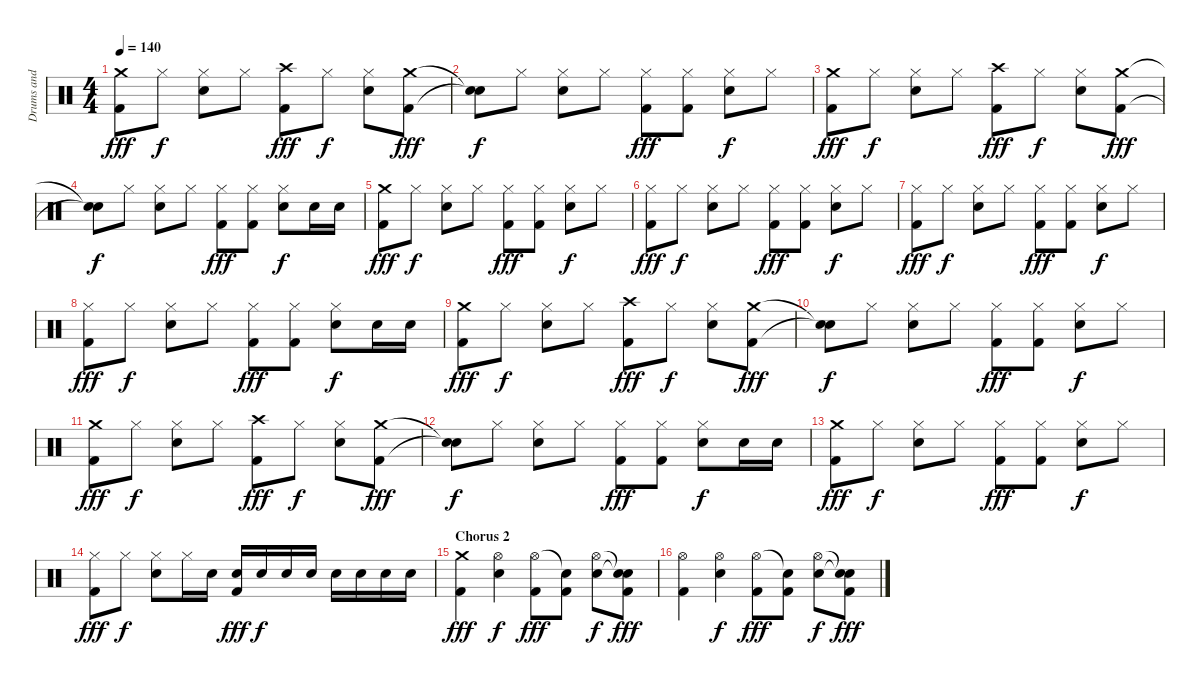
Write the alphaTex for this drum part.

\track ("Drums and Percussion" "Drums and ") {instrument percussion}
\staff {score}
\articulation defaults
\ts (4 4)
\tempo 140
\clef neutral
\ks c
("Crash medium (hit)" "Kick (hit) 2").8{dy fff} "Hi-Hat (closed)".8{dy f} ("Hi-Hat (closed)" "Snare (hit) 2").8 "Hi-Hat (closed)".8 ("Crash high (hit)" "Kick (hit) 2").8{dy fff} "Hi-Hat (closed)".8{dy f} ("Hi-Hat (closed)" "Snare (hit) 2").8 ("Crash medium (hit)" "Kick (hit) 2").8{dy fff} |
("Snare (hit)"{t} "Snare (hit)"{t}).8{dy f} "Hi-Hat (closed)".8 ("Hi-Hat (closed)" "Snare (hit) 2").8 "Hi-Hat (closed)".8 ("Hi-Hat (closed)" "Kick (hit) 2").8{dy fff} ("Hi-Hat (closed)" "Kick (hit) 2").8 ("Hi-Hat (closed)" "Snare (hit) 2").8{dy f} "Hi-Hat (closed)".8 |
("Crash medium (hit)" "Kick (hit) 2").8{dy fff} "Hi-Hat (closed)".8{dy f} ("Hi-Hat (closed)" "Snare (hit) 2").8 "Hi-Hat (closed)".8 ("Crash high (hit)" "Kick (hit) 2").8{dy fff} "Hi-Hat (closed)".8{dy f} ("Hi-Hat (closed)" "Snare (hit) 2").8 ("Crash medium (hit)" "Kick (hit) 2").8{dy fff} |
("Snare (hit)"{t} "Snare (hit)"{t}).8{dy f} "Hi-Hat (closed)".8 ("Hi-Hat (closed)" "Snare (hit) 2").8 "Hi-Hat (closed)".8 ("Hi-Hat (closed)" "Kick (hit) 2").8{dy fff} ("Hi-Hat (closed)" "Kick (hit) 2").8 ("Hi-Hat (closed)" "Snare (hit) 2").8{dy f} "Snare (hit) 2".16 "Snare (hit) 2".16 |
("Crash medium (hit)" "Kick (hit) 2").8{dy fff} "Hi-Hat (closed)".8{dy f} ("Hi-Hat (closed)" "Snare (hit) 2").8 "Hi-Hat (closed)".8 ("Hi-Hat (closed)" "Kick (hit) 2").8{dy fff} ("Hi-Hat (closed)" "Kick (hit) 2").8 ("Hi-Hat (closed)" "Snare (hit) 2").8{dy f} "Hi-Hat (closed)".8 |
("Hi-Hat (closed)" "Kick (hit) 2").8{dy fff} "Hi-Hat (closed)".8{dy f} ("Hi-Hat (closed)" "Snare (hit) 2").8 "Hi-Hat (closed)".8 ("Hi-Hat (closed)" "Kick (hit) 2").8{dy fff} ("Hi-Hat (closed)" "Kick (hit) 2").8 ("Hi-Hat (closed)" "Snare (hit) 2").8{dy f} "Hi-Hat (closed)".8 |
("Hi-Hat (closed)" "Kick (hit) 2").8{dy fff} "Hi-Hat (closed)".8{dy f} ("Hi-Hat (closed)" "Snare (hit) 2").8 "Hi-Hat (closed)".8 ("Hi-Hat (closed)" "Kick (hit) 2").8{dy fff} ("Hi-Hat (closed)" "Kick (hit) 2").8 ("Hi-Hat (closed)" "Snare (hit) 2").8{dy f} "Hi-Hat (closed)".8 |
("Hi-Hat (closed)" "Kick (hit) 2").8{dy fff} "Hi-Hat (closed)".8{dy f} ("Hi-Hat (closed)" "Snare (hit) 2").8 "Hi-Hat (closed)".8 ("Hi-Hat (closed)" "Kick (hit) 2").8{dy fff} ("Hi-Hat (closed)" "Kick (hit) 2").8 ("Hi-Hat (closed)" "Snare (hit) 2").8{dy f} "Snare (hit) 2".16 "Snare (hit) 2".16 |
("Crash medium (hit)" "Kick (hit) 2").8{dy fff} "Hi-Hat (closed)".8{dy f} ("Hi-Hat (closed)" "Snare (hit) 2").8 "Hi-Hat (closed)".8 ("Crash high (hit)" "Kick (hit) 2").8{dy fff} "Hi-Hat (closed)".8{dy f} ("Hi-Hat (closed)" "Snare (hit) 2").8 ("Crash medium (hit)" "Kick (hit) 2").8{dy fff} |
("Snare (hit)"{t} "Snare (hit)"{t}).8{dy f} "Hi-Hat (closed)".8 ("Hi-Hat (closed)" "Snare (hit) 2").8 "Hi-Hat (closed)".8 ("Hi-Hat (closed)" "Kick (hit) 2").8{dy fff} ("Hi-Hat (closed)" "Kick (hit) 2").8 ("Hi-Hat (closed)" "Snare (hit) 2").8{dy f} "Hi-Hat (closed)".8 |
("Crash medium (hit)" "Kick (hit) 2").8{dy fff} "Hi-Hat (closed)".8{dy f} ("Hi-Hat (closed)" "Snare (hit) 2").8 "Hi-Hat (closed)".8 ("Crash high (hit)" "Kick (hit) 2").8{dy fff} "Hi-Hat (closed)".8{dy f} ("Hi-Hat (closed)" "Snare (hit) 2").8 ("Crash medium (hit)" "Kick (hit) 2").8{dy fff} |
("Snare (hit)"{t} "Snare (hit)"{t}).8{dy f} "Hi-Hat (closed)".8 ("Hi-Hat (closed)" "Snare (hit) 2").8 "Hi-Hat (closed)".8 ("Hi-Hat (closed)" "Kick (hit) 2").8{dy fff} ("Hi-Hat (closed)" "Kick (hit) 2").8 ("Hi-Hat (closed)" "Snare (hit) 2").8{dy f} "Snare (hit) 2".16 "Snare (hit) 2".16 |
("Crash medium (hit)" "Kick (hit) 2").8{dy fff} "Hi-Hat (closed)".8{dy f} ("Hi-Hat (closed)" "Snare (hit) 2").8 "Hi-Hat (closed)".8 ("Hi-Hat (closed)" "Kick (hit) 2").8{dy fff} ("Hi-Hat (closed)" "Kick (hit) 2").8 ("Hi-Hat (closed)" "Snare (hit) 2").8{dy f} "Hi-Hat (closed)".8 |
("Hi-Hat (closed)" "Kick (hit) 2").8{dy fff} "Hi-Hat (closed)".8{dy f} ("Hi-Hat (closed)" "Snare (hit) 2").8 "Hi-Hat (closed)".16 "Snare (hit) 2".16 ("Snare (hit) 2" "Kick (hit) 2").16{dy fff} "Snare (hit) 2".16{dy f} "Snare (hit) 2".16 "Snare (hit) 2".16 "Snare (hit) 2".16 "Snare (hit) 2".16 "Snare (hit) 2".16 "Snare (hit) 2".16 |
\section ("" "Chorus 2")
("Crash medium (hit)" "Kick (hit) 2").4{dy fff} ("Hi-Hat (open)" "Snare (hit) 2").4{dy f} ("Hi-Hat (open)" "Kick (hit) 2").8{dy fff} ("Snare (hit)"{t} "Kick (hit) 2").8 ("Hi-Hat (open)" "Snare (hit) 2").8{dy f} ("Snare (hit)"{t} "Snare (hit)"{t} "Kick (hit) 2").8{dy fff} |
("Hi-Hat (open)" "Kick (hit) 2").4 ("Hi-Hat (open)" "Snare (hit) 2").4{dy f} ("Hi-Hat (open)" "Kick (hit) 2").8{dy fff} ("Snare (hit)"{t} "Kick (hit) 2").8 ("Hi-Hat (open)" "Snare (hit) 2").8{dy f} ("Snare (hit)"{t} "Snare (hit)"{t} "Kick (hit) 2").8{dy fff}
